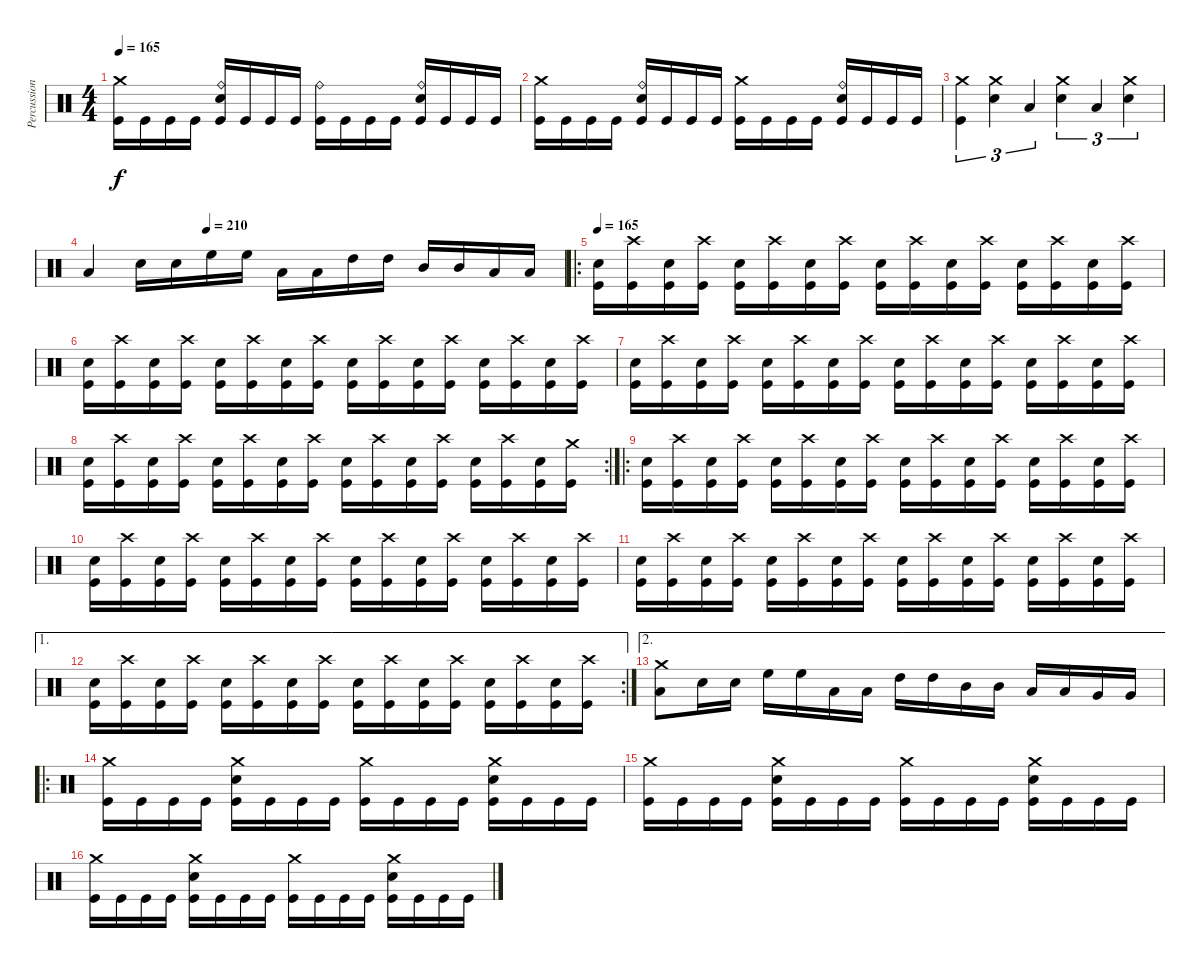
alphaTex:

\track ("Percussion" "Percussion") {instrument percussion}
\staff {score}
\articulation defaults
\ts (4 4)
\tempo 165
\clef neutral
\ks c
("Crash medium (hit)" "Kick (hit)").16{dy f} "Kick (hit)".16 "Kick (hit)".16 "Kick (hit)".16 ("Ride (bell)" "Snare (hit) 2" "Kick (hit)").16 "Kick (hit)".16 "Kick (hit)".16 "Kick (hit)".16 ("Ride (bell)" "Kick (hit)").16 "Kick (hit)".16 "Kick (hit)".16 "Kick (hit)".16 ("Ride (bell)" "Snare (hit) 2" "Kick (hit)").16 "Kick (hit)".16 "Kick (hit)".16 "Kick (hit)".16 |
("Crash medium (hit)" "Kick (hit)").16 "Kick (hit)".16 "Kick (hit)".16 "Kick (hit)".16 ("Ride (bell)" "Snare (hit) 2" "Kick (hit)").16 "Kick (hit)".16 "Kick (hit)".16 "Kick (hit)".16 ("Crash medium (hit)" "Kick (hit)").16 "Kick (hit)".16 "Kick (hit)".16 "Kick (hit)".16 ("Ride (bell)" "Snare (hit) 2" "Kick (hit)").16 "Kick (hit)".16 "Kick (hit)".16 "Kick (hit)".16 |
("Crash medium (hit)" "Kick (hit)").4{tu (3 2)} ("Crash medium (hit)" "Snare (hit) 2").4{tu (3 2)} "Low Tom (hit)".4{tu (3 2)} ("Crash medium (hit)" "Snare (hit) 2").4{tu (3 2)} "Low Tom (hit)".4{tu (3 2)} ("Crash medium (hit)" "Snare (hit) 2").4{tu (3 2)} |
\tempo (210 0.25)
"Low Tom (hit)".4 "Snare (hit) 2".16 "Snare (hit) 2".16 "High Floor Tom (hit)".16 "High Floor Tom (hit)".16 "Low Tom (hit)".16 "Low Tom (hit)".16 "High Tom (hit)".16 "High Tom (hit)".16 "Mid Tom (hit)".16 "Mid Tom (hit)".16 "Low Tom (hit)".16 "Low Tom (hit)".16 |
\ro
\tempo 165
("Snare (hit) 2" "Kick (hit)").16 ("Crash high (hit)" "Kick (hit)").16 ("Snare (hit) 2" "Kick (hit)").16 ("Crash high (hit)" "Kick (hit)").16 ("Snare (hit) 2" "Kick (hit)").16 ("Crash high (hit)" "Kick (hit)").16 ("Snare (hit) 2" "Kick (hit)").16 ("Crash high (hit)" "Kick (hit)").16 ("Snare (hit) 2" "Kick (hit)").16 ("Crash high (hit)" "Kick (hit)").16 ("Snare (hit) 2" "Kick (hit)").16 ("Crash high (hit)" "Kick (hit)").16 ("Snare (hit) 2" "Kick (hit)").16 ("Crash high (hit)" "Kick (hit)").16 ("Snare (hit) 2" "Kick (hit)").16 ("Crash high (hit)" "Kick (hit)").16 |
("Snare (hit) 2" "Kick (hit)").16 ("Crash high (hit)" "Kick (hit)").16 ("Snare (hit) 2" "Kick (hit)").16 ("Crash high (hit)" "Kick (hit)").16 ("Snare (hit) 2" "Kick (hit)").16 ("Crash high (hit)" "Kick (hit)").16 ("Snare (hit) 2" "Kick (hit)").16 ("Crash high (hit)" "Kick (hit)").16 ("Snare (hit) 2" "Kick (hit)").16 ("Crash high (hit)" "Kick (hit)").16 ("Snare (hit) 2" "Kick (hit)").16 ("Crash high (hit)" "Kick (hit)").16 ("Snare (hit) 2" "Kick (hit)").16 ("Crash high (hit)" "Kick (hit)").16 ("Snare (hit) 2" "Kick (hit)").16 ("Crash high (hit)" "Kick (hit)").16 |
("Snare (hit) 2" "Kick (hit)").16 ("Crash high (hit)" "Kick (hit)").16 ("Snare (hit) 2" "Kick (hit)").16 ("Crash high (hit)" "Kick (hit)").16 ("Snare (hit) 2" "Kick (hit)").16 ("Crash high (hit)" "Kick (hit)").16 ("Snare (hit) 2" "Kick (hit)").16 ("Crash high (hit)" "Kick (hit)").16 ("Snare (hit) 2" "Kick (hit)").16 ("Crash high (hit)" "Kick (hit)").16 ("Snare (hit) 2" "Kick (hit)").16 ("Crash high (hit)" "Kick (hit)").16 ("Snare (hit) 2" "Kick (hit)").16 ("Crash high (hit)" "Kick (hit)").16 ("Snare (hit) 2" "Kick (hit)").16 ("Crash high (hit)" "Kick (hit)").16 |
\rc 2
("Snare (hit) 2" "Kick (hit)").16 ("Crash high (hit)" "Kick (hit)").16 ("Snare (hit) 2" "Kick (hit)").16 ("Crash high (hit)" "Kick (hit)").16 ("Snare (hit) 2" "Kick (hit)").16 ("Crash high (hit)" "Kick (hit)").16 ("Snare (hit) 2" "Kick (hit)").16 ("Crash high (hit)" "Kick (hit)").16 ("Snare (hit) 2" "Kick (hit)").16 ("Crash high (hit)" "Kick (hit)").16 ("Snare (hit) 2" "Kick (hit)").16 ("Crash high (hit)" "Kick (hit)").16 ("Snare (hit) 2" "Kick (hit)").16 ("Crash high (hit)" "Kick (hit)").16 ("Snare (hit) 2" "Kick (hit)").16 ("Crash medium (hit)" "Kick (hit)").16 |
\ro
("Snare (hit) 2" "Kick (hit)").16 ("Crash high (hit)" "Kick (hit)").16 ("Snare (hit) 2" "Kick (hit)").16 ("Crash high (hit)" "Kick (hit)").16 ("Snare (hit) 2" "Kick (hit)").16 ("Crash high (hit)" "Kick (hit)").16 ("Snare (hit) 2" "Kick (hit)").16 ("Crash high (hit)" "Kick (hit)").16 ("Snare (hit) 2" "Kick (hit)").16 ("Crash high (hit)" "Kick (hit)").16 ("Snare (hit) 2" "Kick (hit)").16 ("Crash high (hit)" "Kick (hit)").16 ("Snare (hit) 2" "Kick (hit)").16 ("Crash high (hit)" "Kick (hit)").16 ("Snare (hit) 2" "Kick (hit)").16 ("Crash high (hit)" "Kick (hit)").16 |
("Snare (hit) 2" "Kick (hit)").16 ("Crash high (hit)" "Kick (hit)").16 ("Snare (hit) 2" "Kick (hit)").16 ("Crash high (hit)" "Kick (hit)").16 ("Snare (hit) 2" "Kick (hit)").16 ("Crash high (hit)" "Kick (hit)").16 ("Snare (hit) 2" "Kick (hit)").16 ("Crash high (hit)" "Kick (hit)").16 ("Snare (hit) 2" "Kick (hit)").16 ("Crash high (hit)" "Kick (hit)").16 ("Snare (hit) 2" "Kick (hit)").16 ("Crash high (hit)" "Kick (hit)").16 ("Snare (hit) 2" "Kick (hit)").16 ("Crash high (hit)" "Kick (hit)").16 ("Snare (hit) 2" "Kick (hit)").16 ("Crash high (hit)" "Kick (hit)").16 |
("Snare (hit) 2" "Kick (hit)").16 ("Crash high (hit)" "Kick (hit)").16 ("Snare (hit) 2" "Kick (hit)").16 ("Crash high (hit)" "Kick (hit)").16 ("Snare (hit) 2" "Kick (hit)").16 ("Crash high (hit)" "Kick (hit)").16 ("Snare (hit) 2" "Kick (hit)").16 ("Crash high (hit)" "Kick (hit)").16 ("Snare (hit) 2" "Kick (hit)").16 ("Crash high (hit)" "Kick (hit)").16 ("Snare (hit) 2" "Kick (hit)").16 ("Crash high (hit)" "Kick (hit)").16 ("Snare (hit) 2" "Kick (hit)").16 ("Crash high (hit)" "Kick (hit)").16 ("Snare (hit) 2" "Kick (hit)").16 ("Crash high (hit)" "Kick (hit)").16 |
\ae 1
\rc 2
("Snare (hit) 2" "Kick (hit)").16 ("Crash high (hit)" "Kick (hit)").16 ("Snare (hit) 2" "Kick (hit)").16 ("Crash high (hit)" "Kick (hit)").16 ("Snare (hit) 2" "Kick (hit)").16 ("Crash high (hit)" "Kick (hit)").16 ("Snare (hit) 2" "Kick (hit)").16 ("Crash high (hit)" "Kick (hit)").16 ("Snare (hit) 2" "Kick (hit)").16 ("Crash high (hit)" "Kick (hit)").16 ("Snare (hit) 2" "Kick (hit)").16 ("Crash high (hit)" "Kick (hit)").16 ("Snare (hit) 2" "Kick (hit)").16 ("Crash high (hit)" "Kick (hit)").16 ("Snare (hit) 2" "Kick (hit)").16 ("Crash high (hit)" "Kick (hit)").16 |
\ae 2
("Crash medium (hit)" "Low Tom (hit)").8 "Snare (hit) 2".16 "Snare (hit) 2".16 "High Floor Tom (hit)".16 "High Floor Tom (hit)".16 "Low Tom (hit)".16 "Low Tom (hit)".16 "High Tom (hit)".16 "High Tom (hit)".16 "Mid Tom (hit)".16 "Mid Tom (hit)".16 "Low Tom (hit)".16 "Low Tom (hit)".16 "Very Low Tom (hit)".16 "Very Low Tom (hit)".16 |
\ro
("Crash medium (hit)" "Kick (hit)").16 "Kick (hit)".16 "Kick (hit)".16 "Kick (hit)".16 ("Crash medium (hit)" "Snare (hit) 2" "Kick (hit)").16 "Kick (hit)".16 "Kick (hit)".16 "Kick (hit)".16 ("Crash medium (hit)" "Kick (hit)").16 "Kick (hit)".16 "Kick (hit)".16 "Kick (hit)".16 ("Crash medium (hit)" "Snare (hit) 2" "Kick (hit)").16 "Kick (hit)".16 "Kick (hit)".16 "Kick (hit)".16 |
("Crash medium (hit)" "Kick (hit)").16 "Kick (hit)".16 "Kick (hit)".16 "Kick (hit)".16 ("Crash medium (hit)" "Snare (hit) 2" "Kick (hit)").16 "Kick (hit)".16 "Kick (hit)".16 "Kick (hit)".16 ("Crash medium (hit)" "Kick (hit)").16 "Kick (hit)".16 "Kick (hit)".16 "Kick (hit)".16 ("Crash medium (hit)" "Snare (hit) 2" "Kick (hit)").16 "Kick (hit)".16 "Kick (hit)".16 "Kick (hit)".16 |
("Crash medium (hit)" "Kick (hit)").16 "Kick (hit)".16 "Kick (hit)".16 "Kick (hit)".16 ("Crash medium (hit)" "Snare (hit) 2" "Kick (hit)").16 "Kick (hit)".16 "Kick (hit)".16 "Kick (hit)".16 ("Crash medium (hit)" "Kick (hit)").16 "Kick (hit)".16 "Kick (hit)".16 "Kick (hit)".16 ("Crash medium (hit)" "Snare (hit) 2" "Kick (hit)").16 "Kick (hit)".16 "Kick (hit)".16 "Kick (hit)".16
